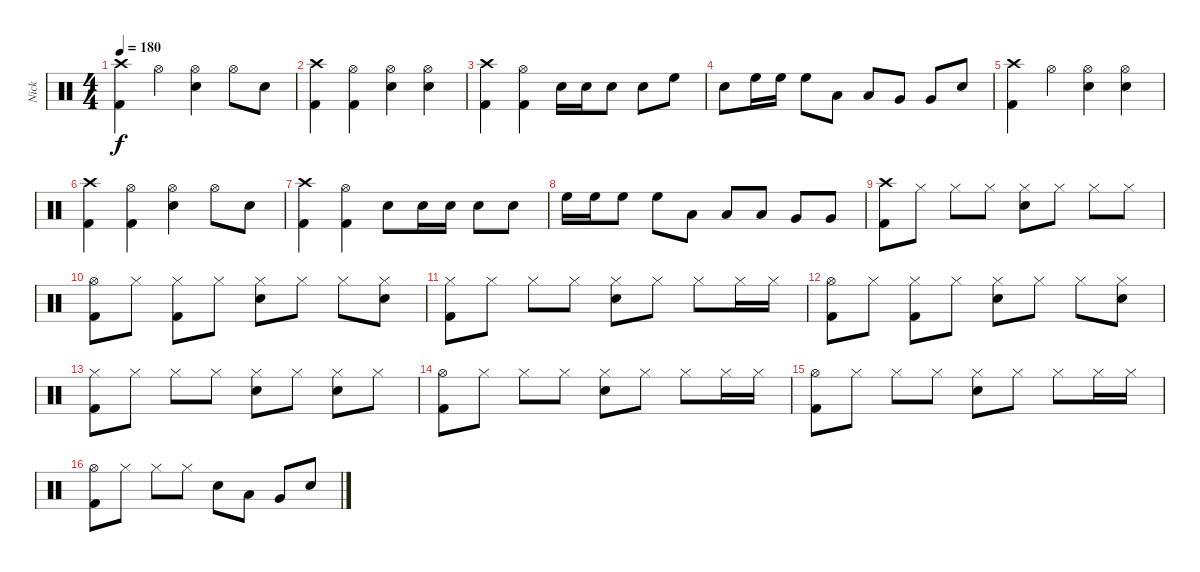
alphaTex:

\track ("Nick" "Nick") {instrument percussion}
\staff {score}
\articulation defaults
\ts (4 4)
\tempo 180
\clef neutral
\ks c
("Crash high (hit)" "Kick (hit) 2").4{dy f} "Hi-Hat (open)".4 ("Hi-Hat (open)" "Snare (hit) 2").4 "Hi-Hat (open)".8 "Snare (hit) 2".8 |
("Crash high (hit)" "Kick (hit) 2").4 ("Hi-Hat (open)" "Kick (hit) 2").4 ("Hi-Hat (open)" "Snare (hit) 2").4 ("Hi-Hat (open)" "Snare (hit) 2").4 |
("Crash high (hit)" "Kick (hit) 2").4 ("Hi-Hat (open)" "Kick (hit) 2").4 "Snare (hit) 2".16 "Snare (hit) 2".16 "Snare (hit) 2".8 "Snare (hit) 2".8 "High Floor Tom (hit)".8 |
"Snare (hit) 2".8 "High Floor Tom (hit)".16 "High Floor Tom (hit)".16 "High Floor Tom (hit)".8 "Low Tom (hit)".8 "Low Tom (hit)".8 "Very Low Tom (hit)".8 "Very Low Tom (hit)".8 "Snare (hit) 2".8 |
("Crash high (hit)" "Kick (hit) 2").4 "Hi-Hat (open)".4 ("Hi-Hat (open)" "Snare (hit) 2").4 ("Hi-Hat (open)" "Snare (hit) 2").4 |
("Crash high (hit)" "Kick (hit) 2").4 ("Hi-Hat (open)" "Kick (hit) 2").4 ("Hi-Hat (open)" "Snare (hit) 2").4 "Hi-Hat (open)".8 "Snare (hit) 2".8 |
("Crash high (hit)" "Kick (hit) 2").4 ("Hi-Hat (open)" "Kick (hit) 2").4 "Snare (hit) 2".8 "Snare (hit) 2".16 "Snare (hit) 2".16 "Snare (hit) 2".8 "Snare (hit) 2".8 |
"High Floor Tom (hit)".16 "High Floor Tom (hit)".16 "High Floor Tom (hit)".8 "High Floor Tom (hit)".8 "Low Tom (hit)".8 "Low Tom (hit)".8 "Low Tom (hit)".8 "Very Low Tom (hit)".8 "Very Low Tom (hit)".8 |
("Crash high (hit)" "Kick (hit) 2").8 "Hi-Hat (closed)".8 "Hi-Hat (closed)".8 "Hi-Hat (closed)".8 ("Hi-Hat (closed)" "Snare (hit) 2").8 "Hi-Hat (closed)".8 "Hi-Hat (closed)".8 "Hi-Hat (closed)".8 |
("Hi-Hat (open)" "Kick (hit) 2").8 "Hi-Hat (closed)".8 ("Hi-Hat (closed)" "Kick (hit) 2").8 "Hi-Hat (closed)".8 ("Hi-Hat (closed)" "Snare (hit) 2").8 "Hi-Hat (closed)".8 "Hi-Hat (closed)".8 ("Hi-Hat (closed)" "Snare (hit) 2").8 |
("Hi-Hat (closed)" "Kick (hit) 2").8 "Hi-Hat (closed)".8 "Hi-Hat (closed)".8 "Hi-Hat (closed)".8 ("Hi-Hat (closed)" "Snare (hit) 2").8 "Hi-Hat (closed)".8 "Hi-Hat (closed)".8 "Hi-Hat (closed)".16 "Hi-Hat (closed)".16 |
("Hi-Hat (open)" "Kick (hit) 2").8 "Hi-Hat (closed)".8 ("Hi-Hat (closed)" "Kick (hit) 2").8 "Hi-Hat (closed)".8 ("Hi-Hat (closed)" "Snare (hit) 2").8 "Hi-Hat (closed)".8 "Hi-Hat (closed)".8 ("Hi-Hat (closed)" "Snare (hit) 2").8 |
("Hi-Hat (closed)" "Kick (hit) 2").8 "Hi-Hat (closed)".8 "Hi-Hat (closed)".8 "Hi-Hat (closed)".8 ("Hi-Hat (closed)" "Snare (hit) 2").8 "Hi-Hat (closed)".8 ("Hi-Hat (closed)" "Snare (hit) 2").8 "Hi-Hat (closed)".8 |
("Hi-Hat (open)" "Kick (hit) 2").8 "Hi-Hat (closed)".8 "Hi-Hat (closed)".8 "Hi-Hat (closed)".8 ("Hi-Hat (closed)" "Snare (hit) 2").8 "Hi-Hat (closed)".8 "Hi-Hat (closed)".8 "Hi-Hat (closed)".16 "Hi-Hat (closed)".16 |
("Hi-Hat (open)" "Kick (hit) 2").8 "Hi-Hat (closed)".8 "Hi-Hat (closed)".8 "Hi-Hat (closed)".8 ("Hi-Hat (closed)" "Snare (hit) 2").8 "Hi-Hat (closed)".8 "Hi-Hat (closed)".8 "Hi-Hat (closed)".16 "Hi-Hat (closed)".16 |
("Hi-Hat (open)" "Kick (hit) 2").8 "Hi-Hat (closed)".8 "Hi-Hat (closed)".8 "Hi-Hat (closed)".8 "Snare (hit) 2".8 "Low Tom (hit)".8 "Very Low Tom (hit)".8 "Snare (hit) 2".8
